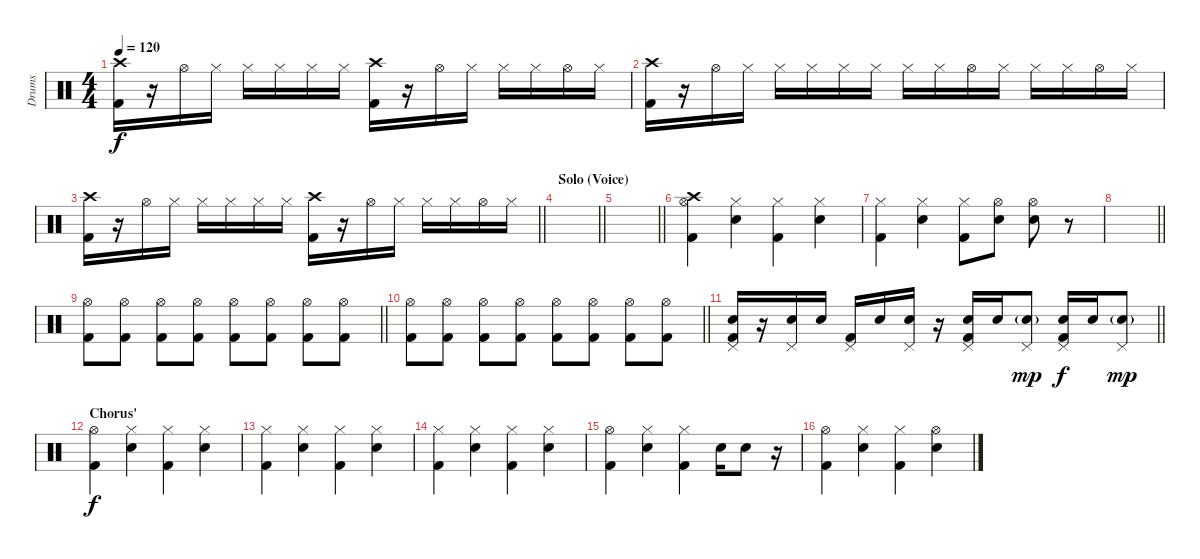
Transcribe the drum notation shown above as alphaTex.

\track ("Drums" "Drums") {instrument percussion}
\staff {score}
\articulation defaults
\ts (4 4)
\tempo 120
\clef neutral
\ks c
("Crash high (hit)" "Kick (hit) 2").16{dy f} r.16 "Hi-Hat (open)".16 "Hi-Hat (closed)".16 "Hi-Hat (closed)".16 "Hi-Hat (closed)".16 "Hi-Hat (closed)".16 "Hi-Hat (closed)".16 ("Crash high (hit)" "Kick (hit) 2").16 r.16 "Hi-Hat (open)".16 "Hi-Hat (closed)".16 "Hi-Hat (closed)".16 "Hi-Hat (closed)".16 "Hi-Hat (open)".16 "Hi-Hat (closed)".16 |
("Crash high (hit)" "Kick (hit) 2").16 r.16 "Hi-Hat (open)".16 "Hi-Hat (closed)".16 "Hi-Hat (closed)".16 "Hi-Hat (closed)".16 "Hi-Hat (closed)".16 "Hi-Hat (closed)".16 "Hi-Hat (closed)".16 "Hi-Hat (closed)".16 "Hi-Hat (open)".16 "Hi-Hat (closed)".16 "Hi-Hat (closed)".16 "Hi-Hat (closed)".16 "Hi-Hat (open)".16 "Hi-Hat (closed)".16 |
\barLineRight lightlight
("Crash high (hit)" "Kick (hit) 2").16 r.16 "Hi-Hat (open)".16 "Hi-Hat (closed)".16 "Hi-Hat (closed)".16 "Hi-Hat (closed)".16 "Hi-Hat (closed)".16 "Hi-Hat (closed)".16 ("Crash high (hit)" "Kick (hit) 2").16 r.16 "Hi-Hat (open)".16 "Hi-Hat (closed)".16 "Hi-Hat (closed)".16 "Hi-Hat (closed)".16 "Hi-Hat (open)".16 "Hi-Hat (closed)".16 |
\section ("" "Solo (Voice)")
\barLineRight lightlight
|
\barLineRight lightlight
|
("Crash high (hit)" "Hi-Hat (open)" "Kick (hit) 2").4{volume 11} ("Hi-Hat (closed)" "Snare (hit) 2").4 ("Hi-Hat (closed)" "Kick (hit) 2").4 ("Hi-Hat (closed)" "Snare (hit) 2").4 |
("Hi-Hat (closed)" "Kick (hit) 2").4 ("Hi-Hat (closed)" "Snare (hit) 2").4 ("Hi-Hat (closed)" "Kick (hit) 2").8 ("Hi-Hat (open)" "Snare (hit) 2").8 ("Hi-Hat (open)" "Snare (hit) 2").8 r.8 |
\barLineRight lightlight
|
\barLineRight lightlight
("Hi-Hat (open)" "Kick (hit) 2").8{volume 0} ("Hi-Hat (open)" "Kick (hit) 2").8{volume 11} ("Hi-Hat (open)" "Kick (hit) 2").8 ("Hi-Hat (open)" "Kick (hit) 2").8 ("Hi-Hat (open)" "Kick (hit) 2").8 ("Hi-Hat (open)" "Kick (hit) 2").8 ("Hi-Hat (open)" "Kick (hit) 2").8 ("Hi-Hat (open)" "Kick (hit) 2").8 |
\barLineRight lightlight
("Hi-Hat (open)" "Kick (hit) 2").8 ("Hi-Hat (open)" "Kick (hit) 2").8 ("Hi-Hat (open)" "Kick (hit) 2").8 ("Hi-Hat (open)" "Kick (hit) 2").8 ("Hi-Hat (open)" "Kick (hit) 2").8 ("Hi-Hat (open)" "Kick (hit) 2").8 ("Hi-Hat (open)" "Kick (hit) 2").8 ("Hi-Hat (open)" "Kick (hit) 2").8 |
\barLineRight lightlight
("Pedal Hi-Hat (hit)" "Snare (hit) 2" "Kick (hit) 2").16 r.16 ("Pedal Hi-Hat (hit)" "Snare (hit) 2").16 "Snare (hit) 2".16 ("Pedal Hi-Hat (hit)" "Kick (hit) 2").16 "Snare (hit) 2".16 ("Pedal Hi-Hat (hit)" "Snare (hit) 2").16 r.16 ("Pedal Hi-Hat (hit)" "Snare (hit) 2" "Kick (hit) 2").16 "Snare (hit) 2".16 ("Pedal Hi-Hat (hit)" "Snare (hit) 2"{g}).8{dy mp} ("Pedal Hi-Hat (hit)" "Snare (hit) 2" "Kick (hit) 2").16{dy f} "Snare (hit) 2".16 ("Pedal Hi-Hat (hit)" "Snare (hit) 2"{g}).8{dy mp} |
\section ("" "Chorus'")
("Hi-Hat (open)" "Kick (hit) 2").4{dy f} ("Hi-Hat (closed)" "Snare (hit) 2").4 ("Hi-Hat (closed)" "Kick (hit) 2").4 ("Hi-Hat (closed)" "Snare (hit) 2").4 |
("Hi-Hat (closed)" "Kick (hit) 2").4 ("Hi-Hat (closed)" "Snare (hit) 2").4 ("Hi-Hat (closed)" "Kick (hit) 2").4 ("Hi-Hat (closed)" "Snare (hit) 2").4 |
("Hi-Hat (closed)" "Kick (hit) 2").4 ("Hi-Hat (closed)" "Snare (hit) 2").4 ("Hi-Hat (closed)" "Kick (hit) 2").4 ("Hi-Hat (closed)" "Snare (hit) 2").4 |
("Hi-Hat (open)" "Kick (hit) 2").4 ("Hi-Hat (closed)" "Snare (hit) 2").4 ("Hi-Hat (closed)" "Kick (hit) 2").4 "Snare (hit) 2".16 "Snare (hit) 2".8 r.16 |
("Hi-Hat (open)" "Kick (hit) 2").4 ("Hi-Hat (closed)" "Snare (hit) 2").4 ("Hi-Hat (closed)" "Kick (hit) 2").4 ("Hi-Hat (open)" "Snare (hit) 2").4
